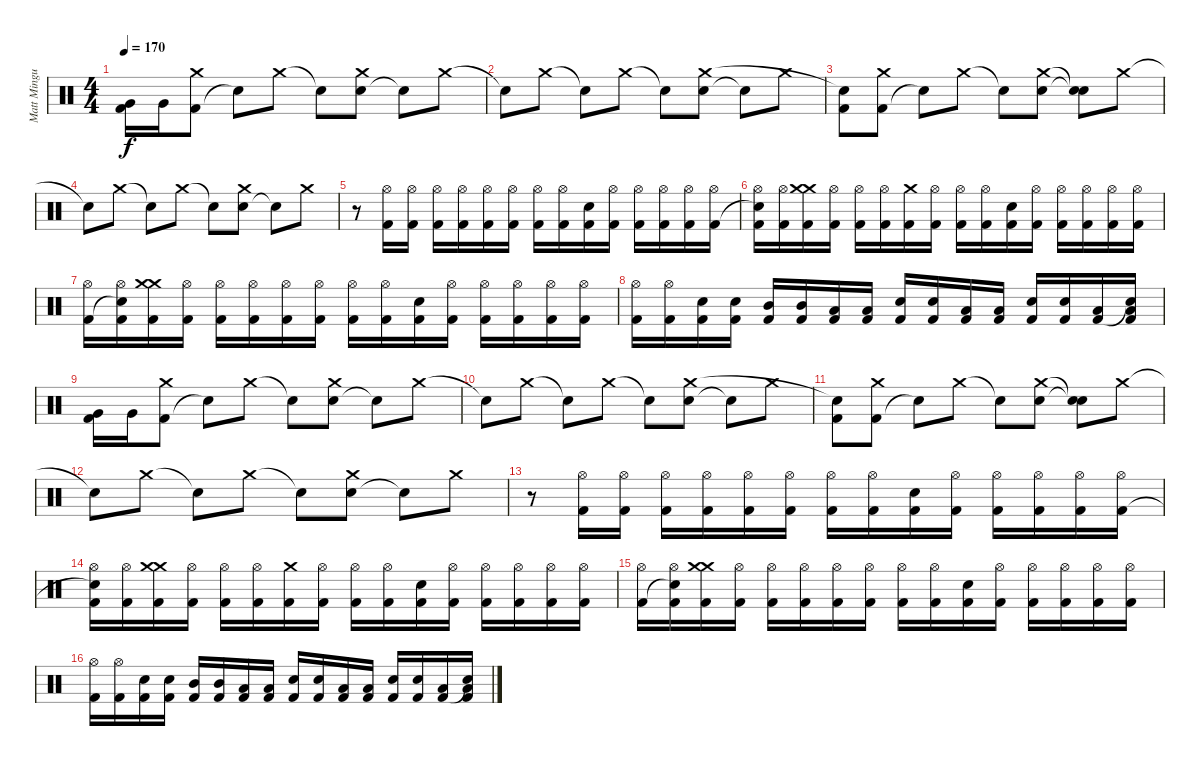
\track ("Matt Mingus" "Matt Mingu") {instrument percussion}
\staff {score}
\articulation defaults
\ts (4 4)
\tempo 170
\clef neutral
\ks c
("Very Low Tom (hit)" "Kick (hit) 2").16{dy f} "Very Low Tom (hit)".16 ("Kick (hit) 2" "Crash medium (hit)").8 "Snare (hit)"{t}.8 "Crash medium (hit)".8 "Snare (hit)"{t}.8 ("Electric Snare (hit)" "Crash medium (hit)").8 "Snare (hit)"{t}.8 "Crash medium (hit)".8 |
"Snare (hit)"{t}.8 "Crash medium (hit)".8 "Snare (hit)"{t}.8 "Crash medium (hit)".8 "Snare (hit)"{t}.8 ("Electric Snare (hit)" "Crash medium (hit)").8 "Snare (hit)"{t}.8 "Crash medium (hit)".8 |
("Kick (hit) 2" "Snare (hit)"{t}).8 ("Kick (hit) 2" "Crash medium (hit)").8 "Snare (hit)"{t}.8 "Crash medium (hit)".8 "Snare (hit)"{t}.8 ("Electric Snare (hit)" "Crash medium (hit)").8 ("Snare (hit)"{t} "Snare (hit)"{t}).8 "Crash medium (hit)".8 |
"Snare (hit)"{t}.8 "Crash medium (hit)".8 "Snare (hit)"{t}.8 "Crash medium (hit)".8 "Snare (hit)"{t}.8 ("Electric Snare (hit)" "Crash medium (hit)").8 "Snare (hit)"{t}.8 "Crash medium (hit)".8 |
r.8 ("Hi-Hat (open)" "Kick (hit) 2").16 ("Hi-Hat (open)" "Kick (hit) 2").16 ("Hi-Hat (open)" "Kick (hit) 2").16 ("Hi-Hat (open)" "Kick (hit) 2").16 ("Hi-Hat (open)" "Kick (hit) 2").16 ("Hi-Hat (open)" "Kick (hit) 2").16 ("Hi-Hat (open)" "Kick (hit) 2").16 ("Hi-Hat (open)" "Kick (hit) 2").16 ("Electric Snare (hit)" "Kick (hit) 2").16 ("Hi-Hat (open)" "Kick (hit) 2").16 ("Hi-Hat (open)" "Kick (hit) 2").16 ("Hi-Hat (open)" "Kick (hit) 2").16 ("Hi-Hat (open)" "Kick (hit) 2").16 ("Hi-Hat (open)" "Kick (hit) 2").16 |
("Hi-Hat (open)" "Snare (hit)"{t} "Kick (hit) 2").16 ("Hi-Hat (open)" "Kick (hit) 2").16 ("Crash medium (hit)" "Crash medium (hit)" "Kick (hit) 2").16 ("Hi-Hat (open)" "Kick (hit) 2").16 ("Hi-Hat (open)" "Kick (hit) 2").16 ("Hi-Hat (open)" "Kick (hit) 2").16 ("Crash medium (hit)" "Kick (hit) 2").16 ("Hi-Hat (open)" "Kick (hit) 2").16 ("Hi-Hat (open)" "Kick (hit) 2").16 ("Hi-Hat (open)" "Kick (hit) 2").16 ("Electric Snare (hit)" "Kick (hit) 2").16 ("Hi-Hat (open)" "Kick (hit) 2").16 ("Hi-Hat (open)" "Kick (hit) 2").16 ("Hi-Hat (open)" "Kick (hit) 2").16 ("Hi-Hat (open)" "Kick (hit) 2").16 ("Hi-Hat (open)" "Kick (hit) 2").16 |
("Hi-Hat (open)" "Kick (hit) 2").16 ("Hi-Hat (open)" "Snare (hit)"{t} "Kick (hit) 2").16 ("Crash medium (hit)" "Crash medium (hit)" "Kick (hit) 2").16 ("Hi-Hat (open)" "Kick (hit) 2").16 ("Hi-Hat (open)" "Kick (hit) 2").16 ("Hi-Hat (open)" "Kick (hit) 2").16 ("Hi-Hat (open)" "Kick (hit) 2").16 ("Hi-Hat (open)" "Kick (hit) 2").16 ("Hi-Hat (open)" "Kick (hit) 2").16 ("Hi-Hat (open)" "Kick (hit) 2").16 ("Electric Snare (hit)" "Kick (hit) 2").16 ("Hi-Hat (open)" "Kick (hit) 2").16 ("Hi-Hat (open)" "Kick (hit) 2").16 ("Hi-Hat (open)" "Kick (hit) 2").16 ("Hi-Hat (open)" "Kick (hit) 2").16 ("Hi-Hat (open)" "Kick (hit) 2").16 |
("Hi-Hat (open)" "Kick (hit) 2").16 ("Hi-Hat (open)" "Kick (hit) 2").16 ("Electric Snare (hit)" "Kick (hit) 2").16 ("Electric Snare (hit)" "Kick (hit) 2").16 ("Mid Tom (hit)" "Kick (hit) 2").16 ("Mid Tom (hit)" "Kick (hit) 2").16 ("Low Tom (hit)" "Kick (hit) 2").16 ("Low Tom (hit)" "Kick (hit) 2").16 ("Electric Snare (hit)" "Kick (hit) 2").16 ("Electric Snare (hit)" "Kick (hit) 2").16 ("Low Tom (hit)" "Kick (hit) 2").16 ("Low Tom (hit)" "Kick (hit) 2").16 ("Electric Snare (hit)" "Kick (hit) 2").16 ("Electric Snare (hit)" "Kick (hit) 2").16 ("Low Tom (hit)" "Kick (hit) 2").16 ("Low Tom (hit)" "Snare (hit)"{t} "Kick (hit) 2").16 |
("Very Low Tom (hit)" "Kick (hit) 2").16 "Very Low Tom (hit)".16 ("Kick (hit) 2" "Crash medium (hit)").8 "Snare (hit)"{t}.8 "Crash medium (hit)".8 "Snare (hit)"{t}.8 ("Electric Snare (hit)" "Crash medium (hit)").8 "Snare (hit)"{t}.8 "Crash medium (hit)".8 |
"Snare (hit)"{t}.8 "Crash medium (hit)".8 "Snare (hit)"{t}.8 "Crash medium (hit)".8 "Snare (hit)"{t}.8 ("Electric Snare (hit)" "Crash medium (hit)").8 "Snare (hit)"{t}.8 "Crash medium (hit)".8 |
("Kick (hit) 2" "Snare (hit)"{t}).8 ("Kick (hit) 2" "Crash medium (hit)").8 "Snare (hit)"{t}.8 "Crash medium (hit)".8 "Snare (hit)"{t}.8 ("Electric Snare (hit)" "Crash medium (hit)").8 ("Snare (hit)"{t} "Snare (hit)"{t}).8 "Crash medium (hit)".8 |
"Snare (hit)"{t}.8 "Crash medium (hit)".8 "Snare (hit)"{t}.8 "Crash medium (hit)".8 "Snare (hit)"{t}.8 ("Electric Snare (hit)" "Crash medium (hit)").8 "Snare (hit)"{t}.8 "Crash medium (hit)".8 |
r.8 ("Hi-Hat (open)" "Kick (hit) 2").16 ("Hi-Hat (open)" "Kick (hit) 2").16 ("Hi-Hat (open)" "Kick (hit) 2").16 ("Hi-Hat (open)" "Kick (hit) 2").16 ("Hi-Hat (open)" "Kick (hit) 2").16 ("Hi-Hat (open)" "Kick (hit) 2").16 ("Hi-Hat (open)" "Kick (hit) 2").16 ("Hi-Hat (open)" "Kick (hit) 2").16 ("Electric Snare (hit)" "Kick (hit) 2").16 ("Hi-Hat (open)" "Kick (hit) 2").16 ("Hi-Hat (open)" "Kick (hit) 2").16 ("Hi-Hat (open)" "Kick (hit) 2").16 ("Hi-Hat (open)" "Kick (hit) 2").16 ("Hi-Hat (open)" "Kick (hit) 2").16 |
("Hi-Hat (open)" "Snare (hit)"{t} "Kick (hit) 2").16 ("Hi-Hat (open)" "Kick (hit) 2").16 ("Crash medium (hit)" "Crash medium (hit)" "Kick (hit) 2").16 ("Hi-Hat (open)" "Kick (hit) 2").16 ("Hi-Hat (open)" "Kick (hit) 2").16 ("Hi-Hat (open)" "Kick (hit) 2").16 ("Crash medium (hit)" "Kick (hit) 2").16 ("Hi-Hat (open)" "Kick (hit) 2").16 ("Hi-Hat (open)" "Kick (hit) 2").16 ("Hi-Hat (open)" "Kick (hit) 2").16 ("Electric Snare (hit)" "Kick (hit) 2").16 ("Hi-Hat (open)" "Kick (hit) 2").16 ("Hi-Hat (open)" "Kick (hit) 2").16 ("Hi-Hat (open)" "Kick (hit) 2").16 ("Hi-Hat (open)" "Kick (hit) 2").16 ("Hi-Hat (open)" "Kick (hit) 2").16 |
("Hi-Hat (open)" "Kick (hit) 2").16 ("Hi-Hat (open)" "Snare (hit)"{t} "Kick (hit) 2").16 ("Crash medium (hit)" "Crash medium (hit)" "Kick (hit) 2").16 ("Hi-Hat (open)" "Kick (hit) 2").16 ("Hi-Hat (open)" "Kick (hit) 2").16 ("Hi-Hat (open)" "Kick (hit) 2").16 ("Hi-Hat (open)" "Kick (hit) 2").16 ("Hi-Hat (open)" "Kick (hit) 2").16 ("Hi-Hat (open)" "Kick (hit) 2").16 ("Hi-Hat (open)" "Kick (hit) 2").16 ("Electric Snare (hit)" "Kick (hit) 2").16 ("Hi-Hat (open)" "Kick (hit) 2").16 ("Hi-Hat (open)" "Kick (hit) 2").16 ("Hi-Hat (open)" "Kick (hit) 2").16 ("Hi-Hat (open)" "Kick (hit) 2").16 ("Hi-Hat (open)" "Kick (hit) 2").16 |
("Hi-Hat (open)" "Kick (hit) 2").16 ("Hi-Hat (open)" "Kick (hit) 2").16 ("Electric Snare (hit)" "Kick (hit) 2").16 ("Electric Snare (hit)" "Kick (hit) 2").16 ("Mid Tom (hit)" "Kick (hit) 2").16 ("Mid Tom (hit)" "Kick (hit) 2").16 ("Low Tom (hit)" "Kick (hit) 2").16 ("Low Tom (hit)" "Kick (hit) 2").16 ("Electric Snare (hit)" "Kick (hit) 2").16 ("Electric Snare (hit)" "Kick (hit) 2").16 ("Low Tom (hit)" "Kick (hit) 2").16 ("Low Tom (hit)" "Kick (hit) 2").16 ("Electric Snare (hit)" "Kick (hit) 2").16 ("Electric Snare (hit)" "Kick (hit) 2").16 ("Low Tom (hit)" "Kick (hit) 2").16 ("Low Tom (hit)" "Snare (hit)"{t} "Kick (hit) 2").16
